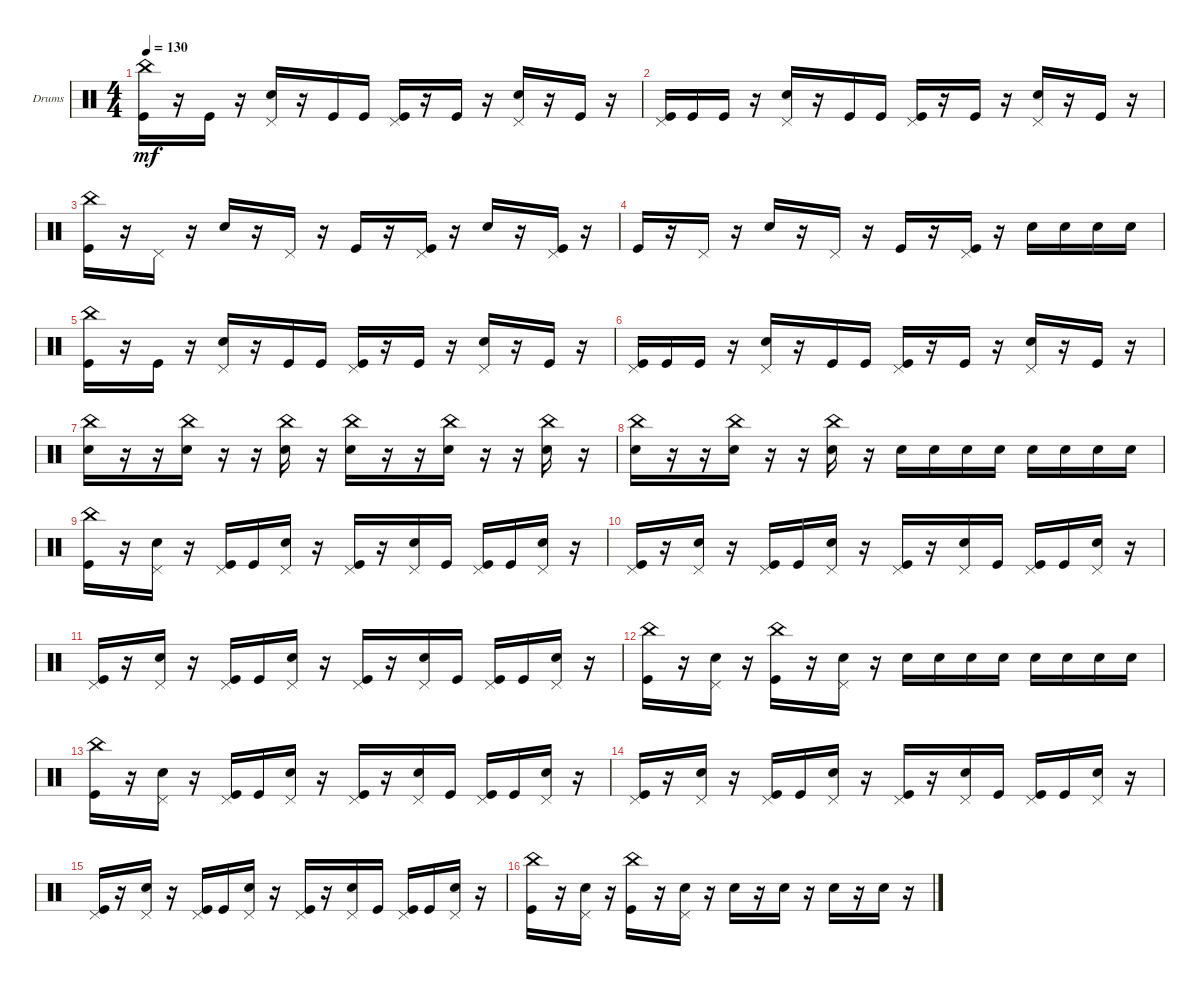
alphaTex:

\defaultSystemsLayout 4
\bracketExtendMode groupsimilarinstruments
\firstSystemTrackNameOrientation horizontal
\otherSystemsTrackNameOrientation horizontal
\track ("Drumkit" "Drums") {instrument percussion}
\staff {score}
\articulation defaults
\ts (4 4)
\tempo 130
\clef neutral
\ks c
("Kick (hit)" "China (hit)").16{dy mf} r.16 "Kick (hit)".16 r.16 ("Snare (hit) 2" "Pedal Hi-Hat (hit)").16 r.16 "Kick (hit)".16 "Kick (hit)".16 ("Pedal Hi-Hat (hit)" "Kick (hit)").16 r.16 "Kick (hit)".16 r.16 ("Snare (hit) 2" "Pedal Hi-Hat (hit)").16 r.16 "Kick (hit)".16 r.16 |
("Kick (hit)" "Pedal Hi-Hat (hit)").16 "Kick (hit)".16 "Kick (hit)".16 r.16 ("Snare (hit) 2" "Pedal Hi-Hat (hit)").16 r.16 "Kick (hit)".16 "Kick (hit)".16 ("Pedal Hi-Hat (hit)" "Kick (hit)").16 r.16 "Kick (hit)".16 r.16 ("Snare (hit) 2" "Pedal Hi-Hat (hit)").16 r.16 "Kick (hit)".16 r.16 |
("Kick (hit)" "China (hit)").16 r.16 "Pedal Hi-Hat (hit)".16 r.16 "Snare (hit) 2".16 r.16 "Pedal Hi-Hat (hit)".16 r.16 "Kick (hit)".16 r.16 ("Kick (hit)" "Pedal Hi-Hat (hit)").16 r.16 "Snare (hit) 2".16 r.16 ("Kick (hit)" "Pedal Hi-Hat (hit)").16 r.16 |
"Kick (hit)".16 r.16 "Pedal Hi-Hat (hit)".16 r.16 "Snare (hit) 2".16 r.16 "Pedal Hi-Hat (hit)".16 r.16 "Kick (hit)".16 r.16 ("Kick (hit)" "Pedal Hi-Hat (hit)").16 r.16 "Snare (hit) 2".16 "Snare (hit) 2".16 "Snare (hit) 2".16 "Snare (hit) 2".16 |
("Kick (hit)" "China (hit)").16 r.16 "Kick (hit)".16 r.16 ("Snare (hit) 2" "Pedal Hi-Hat (hit)").16 r.16 "Kick (hit)".16 "Kick (hit)".16 ("Pedal Hi-Hat (hit)" "Kick (hit)").16 r.16 "Kick (hit)".16 r.16 ("Snare (hit) 2" "Pedal Hi-Hat (hit)").16 r.16 "Kick (hit)".16 r.16 |
("Kick (hit)" "Pedal Hi-Hat (hit)").16 "Kick (hit)".16 "Kick (hit)".16 r.16 ("Snare (hit) 2" "Pedal Hi-Hat (hit)").16 r.16 "Kick (hit)".16 "Kick (hit)".16 ("Pedal Hi-Hat (hit)" "Kick (hit)").16 r.16 "Kick (hit)".16 r.16 ("Snare (hit) 2" "Pedal Hi-Hat (hit)").16 r.16 "Kick (hit)".16 r.16 |
("Snare (hit) 2" "China (hit)").16 r.16 r.16 ("Snare (hit) 2" "China (hit)").16 r.16 r.16 ("Snare (hit) 2" "China (hit)").16 r.16 ("Snare (hit) 2" "China (hit)").16 r.16 r.16 ("Snare (hit) 2" "China (hit)").16 r.16 r.16 ("Snare (hit) 2" "China (hit)").16 r.16 |
("Snare (hit) 2" "China (hit)").16 r.16 r.16 ("Snare (hit) 2" "China (hit)").16 r.16 r.16 ("Snare (hit) 2" "China (hit)").16 r.16 "Snare (hit) 2".16 "Snare (hit) 2".16 "Snare (hit) 2".16 "Snare (hit) 2".16 "Snare (hit) 2".16 "Snare (hit) 2".16 "Snare (hit) 2".16 "Snare (hit) 2".16 |
("Kick (hit)" "China (hit)").16 r.16 ("Snare (hit) 2" "Pedal Hi-Hat (hit)").16 r.16 ("Kick (hit)" "Pedal Hi-Hat (hit)").16 "Kick (hit)".16 ("Snare (hit) 2" "Pedal Hi-Hat (hit)").16 r.16 ("Kick (hit)" "Pedal Hi-Hat (hit)").16 r.16 ("Snare (hit) 2" "Pedal Hi-Hat (hit)").16 "Kick (hit)".16 ("Kick (hit)" "Pedal Hi-Hat (hit)").16 "Kick (hit)".16 ("Snare (hit) 2" "Pedal Hi-Hat (hit)").16 r.16 |
("Kick (hit)" "Pedal Hi-Hat (hit)").16 r.16 ("Snare (hit) 2" "Pedal Hi-Hat (hit)").16 r.16 ("Kick (hit)" "Pedal Hi-Hat (hit)").16 "Kick (hit)".16 ("Snare (hit) 2" "Pedal Hi-Hat (hit)").16 r.16 ("Kick (hit)" "Pedal Hi-Hat (hit)").16 r.16 ("Snare (hit) 2" "Pedal Hi-Hat (hit)").16 "Kick (hit)".16 ("Kick (hit)" "Pedal Hi-Hat (hit)").16 "Kick (hit)".16 ("Snare (hit) 2" "Pedal Hi-Hat (hit)").16 r.16 |
("Kick (hit)" "Pedal Hi-Hat (hit)").16 r.16 ("Snare (hit) 2" "Pedal Hi-Hat (hit)").16 r.16 ("Kick (hit)" "Pedal Hi-Hat (hit)").16 "Kick (hit)".16 ("Snare (hit) 2" "Pedal Hi-Hat (hit)").16 r.16 ("Kick (hit)" "Pedal Hi-Hat (hit)").16 r.16 ("Snare (hit) 2" "Pedal Hi-Hat (hit)").16 "Kick (hit)".16 ("Kick (hit)" "Pedal Hi-Hat (hit)").16 "Kick (hit)".16 ("Snare (hit) 2" "Pedal Hi-Hat (hit)").16 r.16 |
("Kick (hit)" "China (hit)").16 r.16 ("Pedal Hi-Hat (hit)" "Snare (hit) 2").16 r.16 ("Kick (hit)" "China (hit)").16 r.16 ("Pedal Hi-Hat (hit)" "Snare (hit) 2").16 r.16 "Snare (hit) 2".16 "Snare (hit) 2".16 "Snare (hit) 2".16 "Snare (hit) 2".16 "Snare (hit) 2".16 "Snare (hit) 2".16 "Snare (hit) 2".16 "Snare (hit) 2".16 |
("Kick (hit)" "China (hit)").16 r.16 ("Snare (hit) 2" "Pedal Hi-Hat (hit)").16 r.16 ("Kick (hit)" "Pedal Hi-Hat (hit)").16 "Kick (hit)".16 ("Snare (hit) 2" "Pedal Hi-Hat (hit)").16 r.16 ("Kick (hit)" "Pedal Hi-Hat (hit)").16 r.16 ("Snare (hit) 2" "Pedal Hi-Hat (hit)").16 "Kick (hit)".16 ("Kick (hit)" "Pedal Hi-Hat (hit)").16 "Kick (hit)".16 ("Snare (hit) 2" "Pedal Hi-Hat (hit)").16 r.16 |
("Kick (hit)" "Pedal Hi-Hat (hit)").16 r.16 ("Snare (hit) 2" "Pedal Hi-Hat (hit)").16 r.16 ("Kick (hit)" "Pedal Hi-Hat (hit)").16 "Kick (hit)".16 ("Snare (hit) 2" "Pedal Hi-Hat (hit)").16 r.16 ("Kick (hit)" "Pedal Hi-Hat (hit)").16 r.16 ("Snare (hit) 2" "Pedal Hi-Hat (hit)").16 "Kick (hit)".16 ("Kick (hit)" "Pedal Hi-Hat (hit)").16 "Kick (hit)".16 ("Snare (hit) 2" "Pedal Hi-Hat (hit)").16 r.16 |
("Kick (hit)" "Pedal Hi-Hat (hit)").16 r.16 ("Snare (hit) 2" "Pedal Hi-Hat (hit)").16 r.16 ("Kick (hit)" "Pedal Hi-Hat (hit)").16 "Kick (hit)".16 ("Snare (hit) 2" "Pedal Hi-Hat (hit)").16 r.16 ("Kick (hit)" "Pedal Hi-Hat (hit)").16 r.16 ("Snare (hit) 2" "Pedal Hi-Hat (hit)").16 "Kick (hit)".16 ("Kick (hit)" "Pedal Hi-Hat (hit)").16 "Kick (hit)".16 ("Snare (hit) 2" "Pedal Hi-Hat (hit)").16 r.16 |
("Kick (hit)" "China (hit)").16 r.16 ("Pedal Hi-Hat (hit)" "Snare (hit) 2").16 r.16 ("Kick (hit)" "China (hit)").16 r.16 ("Pedal Hi-Hat (hit)" "Snare (hit) 2").16 r.16 "Snare (hit) 2".16 r.16 "Snare (hit) 2".16 r.16 "Snare (hit) 2".16 r.16 "Snare (hit) 2".16 r.16
